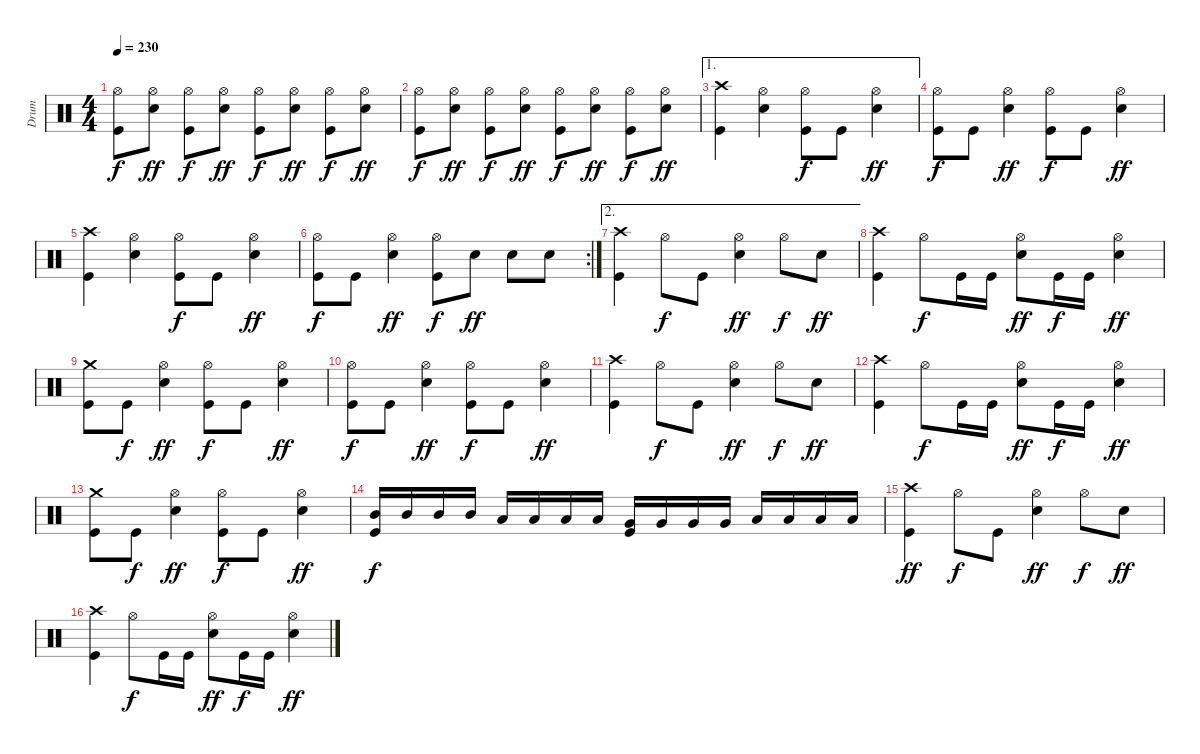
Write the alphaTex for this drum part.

\track ("Drum" "Drum") {instrument percussion}
\staff {score}
\articulation defaults
\ts (4 4)
\tempo 230
\clef neutral
\ks c
("Kick (hit)" "Hi-Hat (open)").8{dy f} ("Electric Snare (hit)" "Hi-Hat (open)").8{dy ff} ("Kick (hit)" "Hi-Hat (open)").8{dy f} ("Electric Snare (hit)" "Hi-Hat (open)").8{dy ff} ("Kick (hit)" "Hi-Hat (open)").8{dy f} ("Electric Snare (hit)" "Hi-Hat (open)").8{dy ff} ("Kick (hit)" "Hi-Hat (open)").8{dy f} ("Electric Snare (hit)" "Hi-Hat (open)").8{dy ff} |
("Kick (hit)" "Hi-Hat (open)").8{dy f} ("Electric Snare (hit)" "Hi-Hat (open)").8{dy ff} ("Kick (hit)" "Hi-Hat (open)").8{dy f} ("Electric Snare (hit)" "Hi-Hat (open)").8{dy ff} ("Kick (hit)" "Hi-Hat (open)").8{dy f} ("Electric Snare (hit)" "Hi-Hat (open)").8{dy ff} ("Kick (hit)" "Hi-Hat (open)").8{dy f} ("Electric Snare (hit)" "Hi-Hat (open)").8{dy ff} |
\ae 1
("Kick (hit)" "Crash high (hit)").4 ("Electric Snare (hit)" "Hi-Hat (open)").4 ("Kick (hit)" "Hi-Hat (open)").8{dy f} "Kick (hit)".8 ("Electric Snare (hit)" "Hi-Hat (open)").4{dy ff} |
("Kick (hit)" "Hi-Hat (open)").8{dy f} "Kick (hit)".8 ("Electric Snare (hit)" "Hi-Hat (open)").4{dy ff} ("Kick (hit)" "Hi-Hat (open)").8{dy f} "Kick (hit)".8 ("Electric Snare (hit)" "Hi-Hat (open)").4{dy ff} |
("Kick (hit)" "Crash high (hit)").4 ("Electric Snare (hit)" "Hi-Hat (open)").4 ("Kick (hit)" "Hi-Hat (open)").8{dy f} "Kick (hit)".8 ("Electric Snare (hit)" "Hi-Hat (open)").4{dy ff} |
\rc 2
("Kick (hit)" "Hi-Hat (open)").8{dy f} "Kick (hit)".8 ("Electric Snare (hit)" "Hi-Hat (open)").4{dy ff} ("Kick (hit)" "Hi-Hat (open)").8{dy f} "Electric Snare (hit)".8{dy ff} "Electric Snare (hit)".8 "Electric Snare (hit)".8 |
\ae 2
("Kick (hit)" "Crash high (hit)").4 "Hi-Hat (open)".8{dy f} "Kick (hit)".8 ("Electric Snare (hit)" "Hi-Hat (open)").4{dy ff} "Hi-Hat (open)".8{dy f} "Electric Snare (hit)".8{dy ff} |
("Kick (hit)" "Crash high (hit)").4 "Hi-Hat (open)".8{dy f} "Kick (hit)".16 "Kick (hit)".16 ("Electric Snare (hit)" "Hi-Hat (open)").8{dy ff} "Kick (hit)".16{dy f} "Kick (hit)".16 ("Electric Snare (hit)" "Hi-Hat (open)").4{dy ff} |
("Kick (hit)" "Crash medium (hit)").8 "Kick (hit)".8{dy f} ("Electric Snare (hit)" "Hi-Hat (open)").4{dy ff} ("Kick (hit)" "Hi-Hat (open)").8{dy f} "Kick (hit)".8 ("Electric Snare (hit)" "Hi-Hat (open)").4{dy ff} |
("Kick (hit)" "Hi-Hat (open)").8{dy f} "Kick (hit)".8 ("Electric Snare (hit)" "Hi-Hat (open)").4{dy ff} ("Kick (hit)" "Hi-Hat (open)").8{dy f} "Kick (hit)".8 ("Electric Snare (hit)" "Hi-Hat (open)").4{dy ff} |
("Kick (hit)" "Crash high (hit)").4 "Hi-Hat (open)".8{dy f} "Kick (hit)".8 ("Electric Snare (hit)" "Hi-Hat (open)").4{dy ff} "Hi-Hat (open)".8{dy f} "Electric Snare (hit)".8{dy ff} |
("Kick (hit)" "Crash high (hit)").4 "Hi-Hat (open)".8{dy f} "Kick (hit)".16 "Kick (hit)".16 ("Electric Snare (hit)" "Hi-Hat (open)").8{dy ff} "Kick (hit)".16{dy f} "Kick (hit)".16 ("Electric Snare (hit)" "Hi-Hat (open)").4{dy ff} |
("Kick (hit)" "Crash medium (hit)").8 "Kick (hit)".8{dy f} ("Electric Snare (hit)" "Hi-Hat (open)").4{dy ff} ("Kick (hit)" "Hi-Hat (open)").8{dy f} "Kick (hit)".8 ("Electric Snare (hit)" "Hi-Hat (open)").4{dy ff} |
("Kick (hit)" "Mid Tom (hit)").16{dy f} "Mid Tom (hit)".16 "Mid Tom (hit)".16 "Mid Tom (hit)".16 "Low Tom (hit)".16 "Low Tom (hit)".16 "Low Tom (hit)".16 "Low Tom (hit)".16 ("Kick (hit)" "Very Low Tom (hit)").16 "Very Low Tom (hit)".16 "Very Low Tom (hit)".16 "Very Low Tom (hit)".16 "Low Floor Tom (hit)".16 "Low Floor Tom (hit)".16 "Low Floor Tom (hit)".16 "Low Floor Tom (hit)".16 |
("Kick (hit)" "Crash high (hit)").4{dy ff} "Hi-Hat (open)".8{dy f} "Kick (hit)".8 ("Electric Snare (hit)" "Hi-Hat (open)").4{dy ff} "Hi-Hat (open)".8{dy f} "Electric Snare (hit)".8{dy ff} |
("Kick (hit)" "Crash high (hit)").4 "Hi-Hat (open)".8{dy f} "Kick (hit)".16 "Kick (hit)".16 ("Electric Snare (hit)" "Hi-Hat (open)").8{dy ff} "Kick (hit)".16{dy f} "Kick (hit)".16 ("Electric Snare (hit)" "Hi-Hat (open)").4{dy ff}
